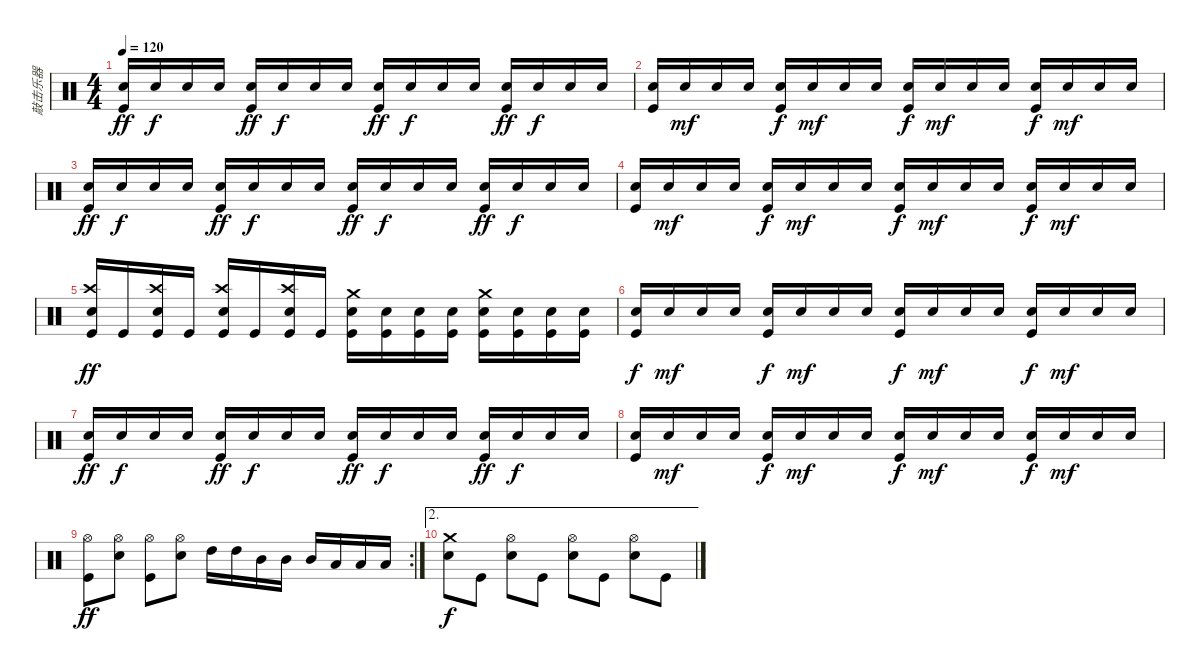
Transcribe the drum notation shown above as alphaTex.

\track ("敲击乐器" "敲击乐器") {instrument percussion}
\staff {score}
\articulation defaults
\ts (4 4)
\tempo 120
\clef neutral
\ks c
("Snare (hit) 2" "Kick (hit)").16{dy ff} "Snare (hit) 2".16{dy f} "Snare (hit) 2".16 "Snare (hit) 2".16 ("Snare (hit) 2" "Kick (hit)").16{dy ff} "Snare (hit) 2".16{dy f} "Snare (hit) 2".16 "Snare (hit) 2".16 ("Snare (hit) 2" "Kick (hit)").16{dy ff} "Snare (hit) 2".16{dy f} "Snare (hit) 2".16 "Snare (hit) 2".16 ("Snare (hit) 2" "Kick (hit)").16{dy ff} "Snare (hit) 2".16{dy f} "Snare (hit) 2".16 "Snare (hit) 2".16 |
("Snare (hit) 2" "Kick (hit)").16 "Snare (hit) 2".16{dy mf} "Snare (hit) 2".16 "Snare (hit) 2".16 ("Snare (hit) 2" "Kick (hit)").16{dy f} "Snare (hit) 2".16{dy mf} "Snare (hit) 2".16 "Snare (hit) 2".16 ("Snare (hit) 2" "Kick (hit)").16{dy f} "Snare (hit) 2".16{dy mf} "Snare (hit) 2".16 "Snare (hit) 2".16 ("Snare (hit) 2" "Kick (hit)").16{dy f} "Snare (hit) 2".16{dy mf} "Snare (hit) 2".16 "Snare (hit) 2".16 |
("Snare (hit) 2" "Kick (hit)").16{dy ff} "Snare (hit) 2".16{dy f} "Snare (hit) 2".16 "Snare (hit) 2".16 ("Snare (hit) 2" "Kick (hit)").16{dy ff} "Snare (hit) 2".16{dy f} "Snare (hit) 2".16 "Snare (hit) 2".16 ("Snare (hit) 2" "Kick (hit)").16{dy ff} "Snare (hit) 2".16{dy f} "Snare (hit) 2".16 "Snare (hit) 2".16 ("Snare (hit) 2" "Kick (hit)").16{dy ff} "Snare (hit) 2".16{dy f} "Snare (hit) 2".16 "Snare (hit) 2".16 |
("Snare (hit) 2" "Kick (hit)").16 "Snare (hit) 2".16{dy mf} "Snare (hit) 2".16 "Snare (hit) 2".16 ("Snare (hit) 2" "Kick (hit)").16{dy f} "Snare (hit) 2".16{dy mf} "Snare (hit) 2".16 "Snare (hit) 2".16 ("Snare (hit) 2" "Kick (hit)").16{dy f} "Snare (hit) 2".16{dy mf} "Snare (hit) 2".16 "Snare (hit) 2".16 ("Snare (hit) 2" "Kick (hit)").16{dy f} "Snare (hit) 2".16{dy mf} "Snare (hit) 2".16 "Snare (hit) 2".16 |
("Crash high (hit)" "Electric Snare (hit)" "Kick (hit)").16{dy ff} "Kick (hit)".16 ("Crash high (hit)" "Electric Snare (hit)" "Kick (hit)").16 "Kick (hit)".16 ("Crash high (hit)" "Electric Snare (hit)" "Kick (hit)").16 "Kick (hit)".16 ("Crash high (hit)" "Electric Snare (hit)" "Kick (hit)").16 "Kick (hit)".16 ("Crash medium (hit)" "Electric Snare (hit)" "Kick (hit)").16 ("Electric Snare (hit)" "Kick (hit)").16 ("Electric Snare (hit)" "Kick (hit)").16 ("Electric Snare (hit)" "Kick (hit)").16 ("Crash medium (hit)" "Electric Snare (hit)" "Kick (hit)").16 ("Electric Snare (hit)" "Kick (hit)").16 ("Electric Snare (hit)" "Kick (hit)").16 ("Electric Snare (hit)" "Kick (hit)").16 |
("Snare (hit) 2" "Kick (hit)").16{dy f} "Snare (hit) 2".16{dy mf} "Snare (hit) 2".16 "Snare (hit) 2".16 ("Snare (hit) 2" "Kick (hit)").16{dy f} "Snare (hit) 2".16{dy mf} "Snare (hit) 2".16 "Snare (hit) 2".16 ("Snare (hit) 2" "Kick (hit)").16{dy f} "Snare (hit) 2".16{dy mf} "Snare (hit) 2".16 "Snare (hit) 2".16 ("Snare (hit) 2" "Kick (hit)").16{dy f} "Snare (hit) 2".16{dy mf} "Snare (hit) 2".16 "Snare (hit) 2".16 |
("Snare (hit) 2" "Kick (hit)").16{dy ff} "Snare (hit) 2".16{dy f} "Snare (hit) 2".16 "Snare (hit) 2".16 ("Snare (hit) 2" "Kick (hit)").16{dy ff} "Snare (hit) 2".16{dy f} "Snare (hit) 2".16 "Snare (hit) 2".16 ("Snare (hit) 2" "Kick (hit)").16{dy ff} "Snare (hit) 2".16{dy f} "Snare (hit) 2".16 "Snare (hit) 2".16 ("Snare (hit) 2" "Kick (hit)").16{dy ff} "Snare (hit) 2".16{dy f} "Snare (hit) 2".16 "Snare (hit) 2".16 |
("Snare (hit) 2" "Kick (hit)").16 "Snare (hit) 2".16{dy mf} "Snare (hit) 2".16 "Snare (hit) 2".16 ("Snare (hit) 2" "Kick (hit)").16{dy f} "Snare (hit) 2".16{dy mf} "Snare (hit) 2".16 "Snare (hit) 2".16 ("Snare (hit) 2" "Kick (hit)").16{dy f} "Snare (hit) 2".16{dy mf} "Snare (hit) 2".16 "Snare (hit) 2".16 ("Snare (hit) 2" "Kick (hit)").16{dy f} "Snare (hit) 2".16{dy mf} "Snare (hit) 2".16 "Snare (hit) 2".16 |
\rc 2
("Hi-Hat (open)" "Kick (hit)").8{dy ff} ("Hi-Hat (open)" "Electric Snare (hit)").8 ("Hi-Hat (open)" "Kick (hit)").8 ("Hi-Hat (open)" "Electric Snare (hit)").8 "High Tom (hit)".16 "High Tom (hit)".16 "Mid Tom (hit)".16 "Mid Tom (hit)".16 "Mid Tom (hit)".16 "Low Tom (hit)".16 "Low Tom (hit)".16 "Low Floor Tom (hit)".16 |
\ae 2
("Crash medium (hit)" "Snare (hit) 2").8{dy f} "Kick (hit)".8 ("Snare (hit) 2" "Hi-Hat (open)").8 "Kick (hit)".8 ("Snare (hit) 2" "Hi-Hat (open)").8 "Kick (hit)".8 ("Snare (hit) 2" "Hi-Hat (open)").8 "Kick (hit)".8
